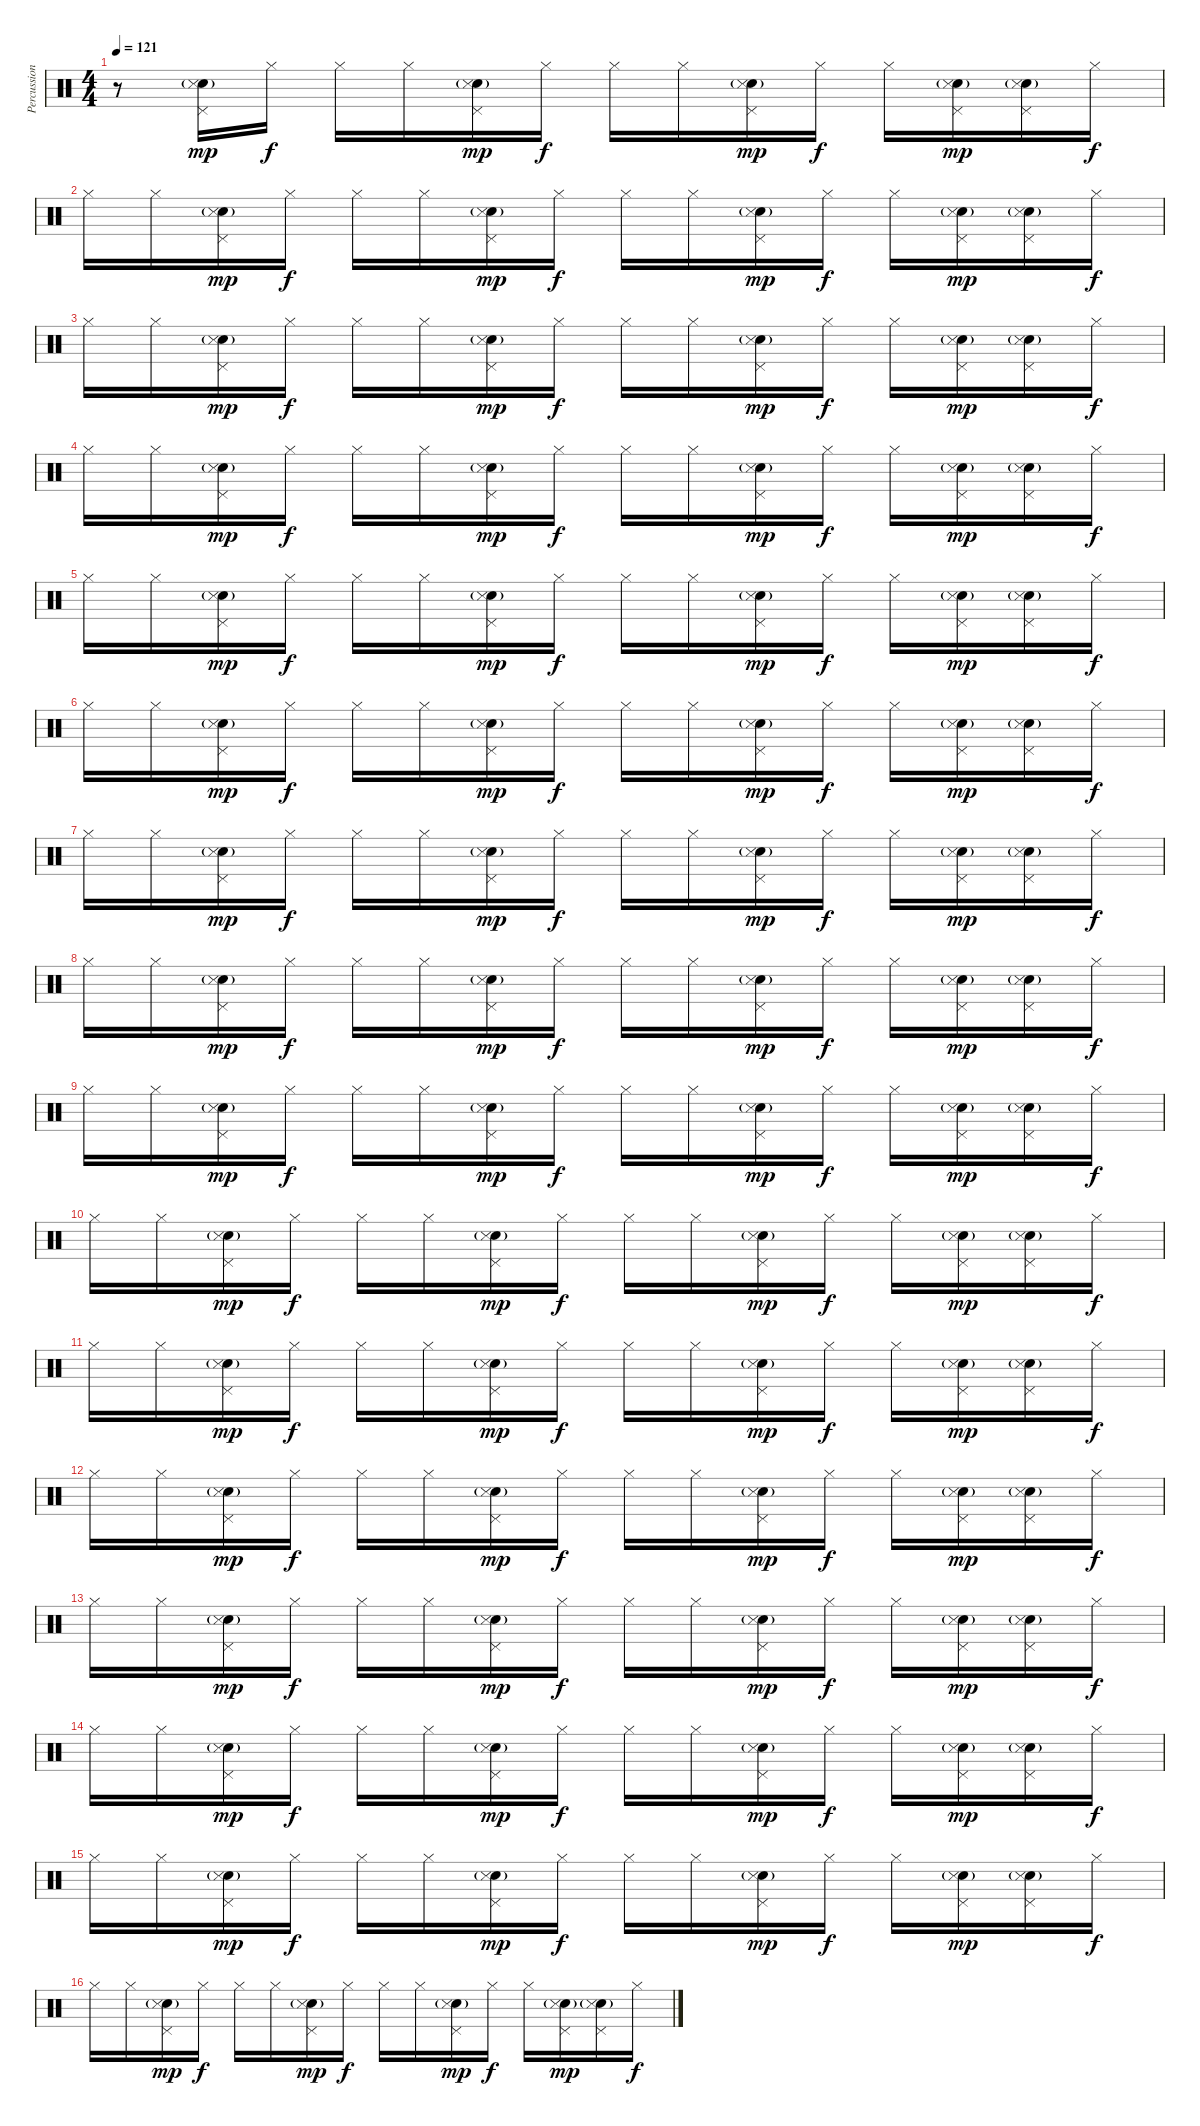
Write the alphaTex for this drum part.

\track ("Percussions" "Percussion") {instrument percussion}
\staff {score}
\articulation defaults
\ts (4 4)
\tempo 121
\clef neutral
\ks c
r.8{dy mp} ("Electric Snare (hit)"{g} "Snare (side stick) 3" "Pedal Hi-Hat (hit)").16 "Hi-Hat (closed)".16{dy f} "Hi-Hat (closed)".16 "Hi-Hat (closed)".16 ("Electric Snare (hit)"{g} "Snare (side stick) 3" "Pedal Hi-Hat (hit)").16{dy mp} "Hi-Hat (closed)".16{dy f} "Hi-Hat (closed)".16 "Hi-Hat (closed)".16 ("Electric Snare (hit)"{g} "Snare (side stick) 3" "Pedal Hi-Hat (hit)").16{dy mp} "Hi-Hat (closed)".16{dy f} "Hi-Hat (closed)".16 ("Electric Snare (hit)"{g} "Snare (side stick) 3" "Pedal Hi-Hat (hit)").16{dy mp} ("Electric Snare (hit)"{g} "Snare (side stick) 3" "Pedal Hi-Hat (hit)").16 "Hi-Hat (closed)".16{dy f} |
"Hi-Hat (closed)".16 "Hi-Hat (closed)".16 ("Electric Snare (hit)"{g} "Snare (side stick) 3" "Pedal Hi-Hat (hit)").16{dy mp} "Hi-Hat (closed)".16{dy f} "Hi-Hat (closed)".16 "Hi-Hat (closed)".16 ("Electric Snare (hit)"{g} "Snare (side stick) 3" "Pedal Hi-Hat (hit)").16{dy mp} "Hi-Hat (closed)".16{dy f} "Hi-Hat (closed)".16 "Hi-Hat (closed)".16 ("Electric Snare (hit)"{g} "Snare (side stick) 3" "Pedal Hi-Hat (hit)").16{dy mp} "Hi-Hat (closed)".16{dy f} "Hi-Hat (closed)".16 ("Electric Snare (hit)"{g} "Snare (side stick) 3" "Pedal Hi-Hat (hit)").16{dy mp} ("Electric Snare (hit)"{g} "Snare (side stick) 3" "Pedal Hi-Hat (hit)").16 "Hi-Hat (closed)".16{dy f} |
"Hi-Hat (closed)".16 "Hi-Hat (closed)".16 ("Electric Snare (hit)"{g} "Snare (side stick) 3" "Pedal Hi-Hat (hit)").16{dy mp} "Hi-Hat (closed)".16{dy f} "Hi-Hat (closed)".16 "Hi-Hat (closed)".16 ("Electric Snare (hit)"{g} "Snare (side stick) 3" "Pedal Hi-Hat (hit)").16{dy mp} "Hi-Hat (closed)".16{dy f} "Hi-Hat (closed)".16 "Hi-Hat (closed)".16 ("Electric Snare (hit)"{g} "Snare (side stick) 3" "Pedal Hi-Hat (hit)").16{dy mp} "Hi-Hat (closed)".16{dy f} "Hi-Hat (closed)".16 ("Electric Snare (hit)"{g} "Snare (side stick) 3" "Pedal Hi-Hat (hit)").16{dy mp} ("Electric Snare (hit)"{g} "Snare (side stick) 3" "Pedal Hi-Hat (hit)").16 "Hi-Hat (closed)".16{dy f} |
"Hi-Hat (closed)".16 "Hi-Hat (closed)".16 ("Electric Snare (hit)"{g} "Snare (side stick) 3" "Pedal Hi-Hat (hit)").16{dy mp} "Hi-Hat (closed)".16{dy f} "Hi-Hat (closed)".16 "Hi-Hat (closed)".16 ("Electric Snare (hit)"{g} "Snare (side stick) 3" "Pedal Hi-Hat (hit)").16{dy mp} "Hi-Hat (closed)".16{dy f} "Hi-Hat (closed)".16 "Hi-Hat (closed)".16 ("Electric Snare (hit)"{g} "Snare (side stick) 3" "Pedal Hi-Hat (hit)").16{dy mp} "Hi-Hat (closed)".16{dy f} "Hi-Hat (closed)".16 ("Electric Snare (hit)"{g} "Snare (side stick) 3" "Pedal Hi-Hat (hit)").16{dy mp} ("Electric Snare (hit)"{g} "Snare (side stick) 3" "Pedal Hi-Hat (hit)").16 "Hi-Hat (closed)".16{dy f} |
"Hi-Hat (closed)".16 "Hi-Hat (closed)".16 ("Electric Snare (hit)"{g} "Snare (side stick) 3" "Pedal Hi-Hat (hit)").16{dy mp} "Hi-Hat (closed)".16{dy f} "Hi-Hat (closed)".16 "Hi-Hat (closed)".16 ("Electric Snare (hit)"{g} "Snare (side stick) 3" "Pedal Hi-Hat (hit)").16{dy mp} "Hi-Hat (closed)".16{dy f} "Hi-Hat (closed)".16 "Hi-Hat (closed)".16 ("Electric Snare (hit)"{g} "Snare (side stick) 3" "Pedal Hi-Hat (hit)").16{dy mp} "Hi-Hat (closed)".16{dy f} "Hi-Hat (closed)".16 ("Electric Snare (hit)"{g} "Snare (side stick) 3" "Pedal Hi-Hat (hit)").16{dy mp} ("Electric Snare (hit)"{g} "Snare (side stick) 3" "Pedal Hi-Hat (hit)").16 "Hi-Hat (closed)".16{dy f} |
"Hi-Hat (closed)".16 "Hi-Hat (closed)".16 ("Electric Snare (hit)"{g} "Snare (side stick) 3" "Pedal Hi-Hat (hit)").16{dy mp} "Hi-Hat (closed)".16{dy f} "Hi-Hat (closed)".16 "Hi-Hat (closed)".16 ("Electric Snare (hit)"{g} "Snare (side stick) 3" "Pedal Hi-Hat (hit)").16{dy mp} "Hi-Hat (closed)".16{dy f} "Hi-Hat (closed)".16 "Hi-Hat (closed)".16 ("Electric Snare (hit)"{g} "Snare (side stick) 3" "Pedal Hi-Hat (hit)").16{dy mp} "Hi-Hat (closed)".16{dy f} "Hi-Hat (closed)".16 ("Electric Snare (hit)"{g} "Snare (side stick) 3" "Pedal Hi-Hat (hit)").16{dy mp} ("Electric Snare (hit)"{g} "Snare (side stick) 3" "Pedal Hi-Hat (hit)").16 "Hi-Hat (closed)".16{dy f} |
"Hi-Hat (closed)".16 "Hi-Hat (closed)".16 ("Electric Snare (hit)"{g} "Snare (side stick) 3" "Pedal Hi-Hat (hit)").16{dy mp} "Hi-Hat (closed)".16{dy f} "Hi-Hat (closed)".16 "Hi-Hat (closed)".16 ("Electric Snare (hit)"{g} "Snare (side stick) 3" "Pedal Hi-Hat (hit)").16{dy mp} "Hi-Hat (closed)".16{dy f} "Hi-Hat (closed)".16 "Hi-Hat (closed)".16 ("Electric Snare (hit)"{g} "Snare (side stick) 3" "Pedal Hi-Hat (hit)").16{dy mp} "Hi-Hat (closed)".16{dy f} "Hi-Hat (closed)".16 ("Electric Snare (hit)"{g} "Snare (side stick) 3" "Pedal Hi-Hat (hit)").16{dy mp} ("Electric Snare (hit)"{g} "Snare (side stick) 3" "Pedal Hi-Hat (hit)").16 "Hi-Hat (closed)".16{dy f} |
"Hi-Hat (closed)".16 "Hi-Hat (closed)".16 ("Electric Snare (hit)"{g} "Snare (side stick) 3" "Pedal Hi-Hat (hit)").16{dy mp} "Hi-Hat (closed)".16{dy f} "Hi-Hat (closed)".16 "Hi-Hat (closed)".16 ("Electric Snare (hit)"{g} "Snare (side stick) 3" "Pedal Hi-Hat (hit)").16{dy mp} "Hi-Hat (closed)".16{dy f} "Hi-Hat (closed)".16 "Hi-Hat (closed)".16 ("Electric Snare (hit)"{g} "Snare (side stick) 3" "Pedal Hi-Hat (hit)").16{dy mp} "Hi-Hat (closed)".16{dy f} "Hi-Hat (closed)".16 ("Electric Snare (hit)"{g} "Snare (side stick) 3" "Pedal Hi-Hat (hit)").16{dy mp} ("Electric Snare (hit)"{g} "Snare (side stick) 3" "Pedal Hi-Hat (hit)").16 "Hi-Hat (closed)".16{dy f} |
"Hi-Hat (closed)".16 "Hi-Hat (closed)".16 ("Electric Snare (hit)"{g} "Snare (side stick) 3" "Pedal Hi-Hat (hit)").16{dy mp} "Hi-Hat (closed)".16{dy f} "Hi-Hat (closed)".16 "Hi-Hat (closed)".16 ("Electric Snare (hit)"{g} "Snare (side stick) 3" "Pedal Hi-Hat (hit)").16{dy mp} "Hi-Hat (closed)".16{dy f} "Hi-Hat (closed)".16 "Hi-Hat (closed)".16 ("Electric Snare (hit)"{g} "Snare (side stick) 3" "Pedal Hi-Hat (hit)").16{dy mp} "Hi-Hat (closed)".16{dy f} "Hi-Hat (closed)".16 ("Electric Snare (hit)"{g} "Snare (side stick) 3" "Pedal Hi-Hat (hit)").16{dy mp} ("Electric Snare (hit)"{g} "Snare (side stick) 3" "Pedal Hi-Hat (hit)").16 "Hi-Hat (closed)".16{dy f} |
"Hi-Hat (closed)".16 "Hi-Hat (closed)".16 ("Electric Snare (hit)"{g} "Snare (side stick) 3" "Pedal Hi-Hat (hit)").16{dy mp} "Hi-Hat (closed)".16{dy f} "Hi-Hat (closed)".16 "Hi-Hat (closed)".16 ("Electric Snare (hit)"{g} "Snare (side stick) 3" "Pedal Hi-Hat (hit)").16{dy mp} "Hi-Hat (closed)".16{dy f} "Hi-Hat (closed)".16 "Hi-Hat (closed)".16 ("Electric Snare (hit)"{g} "Snare (side stick) 3" "Pedal Hi-Hat (hit)").16{dy mp} "Hi-Hat (closed)".16{dy f} "Hi-Hat (closed)".16 ("Electric Snare (hit)"{g} "Snare (side stick) 3" "Pedal Hi-Hat (hit)").16{dy mp} ("Electric Snare (hit)"{g} "Snare (side stick) 3" "Pedal Hi-Hat (hit)").16 "Hi-Hat (closed)".16{dy f} |
"Hi-Hat (closed)".16 "Hi-Hat (closed)".16 ("Electric Snare (hit)"{g} "Snare (side stick) 3" "Pedal Hi-Hat (hit)").16{dy mp} "Hi-Hat (closed)".16{dy f} "Hi-Hat (closed)".16 "Hi-Hat (closed)".16 ("Electric Snare (hit)"{g} "Snare (side stick) 3" "Pedal Hi-Hat (hit)").16{dy mp} "Hi-Hat (closed)".16{dy f} "Hi-Hat (closed)".16 "Hi-Hat (closed)".16 ("Electric Snare (hit)"{g} "Snare (side stick) 3" "Pedal Hi-Hat (hit)").16{dy mp} "Hi-Hat (closed)".16{dy f} "Hi-Hat (closed)".16 ("Electric Snare (hit)"{g} "Snare (side stick) 3" "Pedal Hi-Hat (hit)").16{dy mp} ("Electric Snare (hit)"{g} "Snare (side stick) 3" "Pedal Hi-Hat (hit)").16 "Hi-Hat (closed)".16{dy f} |
"Hi-Hat (closed)".16 "Hi-Hat (closed)".16 ("Electric Snare (hit)"{g} "Snare (side stick) 3" "Pedal Hi-Hat (hit)").16{dy mp} "Hi-Hat (closed)".16{dy f} "Hi-Hat (closed)".16 "Hi-Hat (closed)".16 ("Electric Snare (hit)"{g} "Snare (side stick) 3" "Pedal Hi-Hat (hit)").16{dy mp} "Hi-Hat (closed)".16{dy f} "Hi-Hat (closed)".16 "Hi-Hat (closed)".16 ("Electric Snare (hit)"{g} "Snare (side stick) 3" "Pedal Hi-Hat (hit)").16{dy mp} "Hi-Hat (closed)".16{dy f} "Hi-Hat (closed)".16 ("Electric Snare (hit)"{g} "Snare (side stick) 3" "Pedal Hi-Hat (hit)").16{dy mp} ("Electric Snare (hit)"{g} "Snare (side stick) 3" "Pedal Hi-Hat (hit)").16 "Hi-Hat (closed)".16{dy f} |
"Hi-Hat (closed)".16 "Hi-Hat (closed)".16 ("Electric Snare (hit)"{g} "Snare (side stick) 3" "Pedal Hi-Hat (hit)").16{dy mp} "Hi-Hat (closed)".16{dy f} "Hi-Hat (closed)".16 "Hi-Hat (closed)".16 ("Electric Snare (hit)"{g} "Snare (side stick) 3" "Pedal Hi-Hat (hit)").16{dy mp} "Hi-Hat (closed)".16{dy f} "Hi-Hat (closed)".16 "Hi-Hat (closed)".16 ("Electric Snare (hit)"{g} "Snare (side stick) 3" "Pedal Hi-Hat (hit)").16{dy mp} "Hi-Hat (closed)".16{dy f} "Hi-Hat (closed)".16 ("Electric Snare (hit)"{g} "Snare (side stick) 3" "Pedal Hi-Hat (hit)").16{dy mp} ("Electric Snare (hit)"{g} "Snare (side stick) 3" "Pedal Hi-Hat (hit)").16 "Hi-Hat (closed)".16{dy f} |
"Hi-Hat (closed)".16 "Hi-Hat (closed)".16 ("Electric Snare (hit)"{g} "Snare (side stick) 3" "Pedal Hi-Hat (hit)").16{dy mp} "Hi-Hat (closed)".16{dy f} "Hi-Hat (closed)".16 "Hi-Hat (closed)".16 ("Electric Snare (hit)"{g} "Snare (side stick) 3" "Pedal Hi-Hat (hit)").16{dy mp} "Hi-Hat (closed)".16{dy f} "Hi-Hat (closed)".16 "Hi-Hat (closed)".16 ("Electric Snare (hit)"{g} "Snare (side stick) 3" "Pedal Hi-Hat (hit)").16{dy mp} "Hi-Hat (closed)".16{dy f} "Hi-Hat (closed)".16 ("Electric Snare (hit)"{g} "Snare (side stick) 3" "Pedal Hi-Hat (hit)").16{dy mp} ("Electric Snare (hit)"{g} "Snare (side stick) 3" "Pedal Hi-Hat (hit)").16 "Hi-Hat (closed)".16{dy f} |
"Hi-Hat (closed)".16 "Hi-Hat (closed)".16 ("Electric Snare (hit)"{g} "Snare (side stick) 3" "Pedal Hi-Hat (hit)").16{dy mp} "Hi-Hat (closed)".16{dy f} "Hi-Hat (closed)".16 "Hi-Hat (closed)".16 ("Electric Snare (hit)"{g} "Snare (side stick) 3" "Pedal Hi-Hat (hit)").16{dy mp} "Hi-Hat (closed)".16{dy f} "Hi-Hat (closed)".16 "Hi-Hat (closed)".16 ("Electric Snare (hit)"{g} "Snare (side stick) 3" "Pedal Hi-Hat (hit)").16{dy mp} "Hi-Hat (closed)".16{dy f} "Hi-Hat (closed)".16 ("Electric Snare (hit)"{g} "Snare (side stick) 3" "Pedal Hi-Hat (hit)").16{dy mp} ("Electric Snare (hit)"{g} "Snare (side stick) 3" "Pedal Hi-Hat (hit)").16 "Hi-Hat (closed)".16{dy f} |
"Hi-Hat (closed)".16 "Hi-Hat (closed)".16 ("Electric Snare (hit)"{g} "Snare (side stick) 3" "Pedal Hi-Hat (hit)").16{dy mp} "Hi-Hat (closed)".16{dy f} "Hi-Hat (closed)".16 "Hi-Hat (closed)".16 ("Electric Snare (hit)"{g} "Snare (side stick) 3" "Pedal Hi-Hat (hit)").16{dy mp} "Hi-Hat (closed)".16{dy f} "Hi-Hat (closed)".16 "Hi-Hat (closed)".16 ("Electric Snare (hit)"{g} "Snare (side stick) 3" "Pedal Hi-Hat (hit)").16{dy mp} "Hi-Hat (closed)".16{dy f} "Hi-Hat (closed)".16 ("Electric Snare (hit)"{g} "Snare (side stick) 3" "Pedal Hi-Hat (hit)").16{dy mp} ("Electric Snare (hit)"{g} "Snare (side stick) 3" "Pedal Hi-Hat (hit)").16 "Hi-Hat (closed)".16{dy f}
